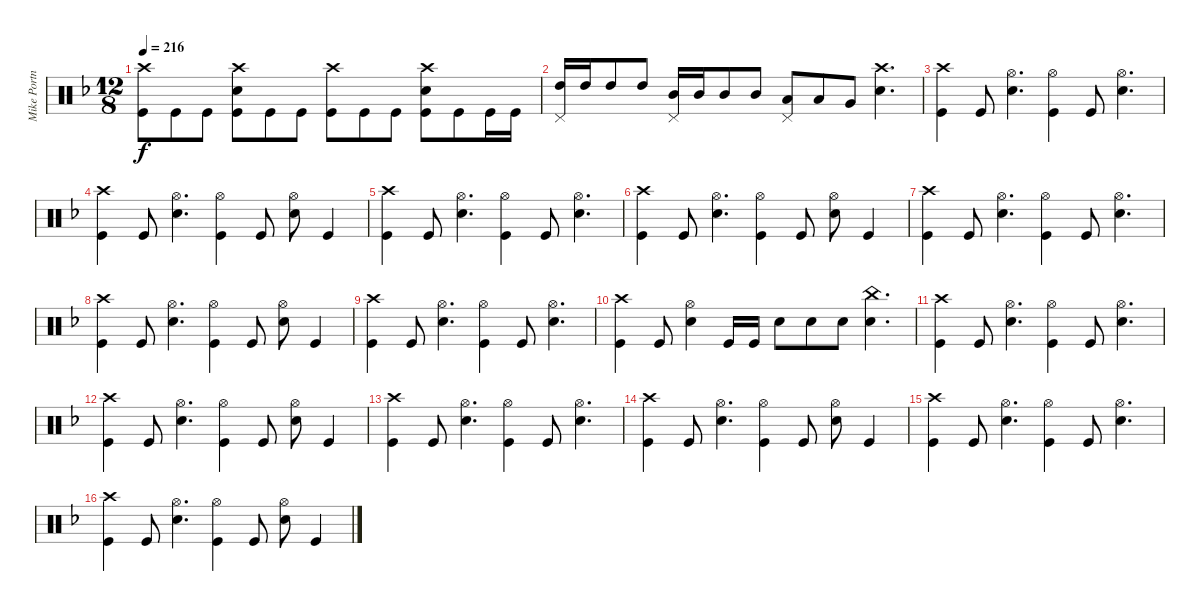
\track ("Mike Portnoy - Drums" "Mike Portn") {instrument percussion}
\staff {score}
\articulation defaults
\ts (12 8)
\tempo 216
\clef neutral
\ks dminor
("Crash high (hit)" "Kick (hit)").8{dy f} "Kick (hit)".8 "Kick (hit)".8 ("Crash high (hit)" "Snare (hit) 2" "Kick (hit)").8 "Kick (hit)".8 "Kick (hit)".8 ("Crash high (hit)" "Kick (hit)").8 "Kick (hit)".8 "Kick (hit)".8 ("Crash high (hit)" "Snare (hit) 2" "Kick (hit)").8 "Kick (hit)".8 "Kick (hit)".16 "Kick (hit)".16 |
("Pedal Hi-Hat (hit)" "High Tom (hit)").16 "High Tom (hit)".16 "High Tom (hit)".8 "High Tom (hit)".8 ("Pedal Hi-Hat (hit)" "Mid Tom (hit)").16 "Mid Tom (hit)".16 "Mid Tom (hit)".8 "Mid Tom (hit)".8 ("Pedal Hi-Hat (hit)" "Low Tom (hit)").8 "Low Tom (hit)".8 "Very Low Tom (hit)".8 ("Crash high (hit)" "Snare (hit) 2").4{d} |
("Crash high (hit)" "Kick (hit)").4 "Kick (hit)".8 ("Hi-Hat (open)" "Snare (hit) 2").4{d} ("Hi-Hat (open)" "Kick (hit)").4 "Kick (hit)".8 ("Hi-Hat (open)" "Snare (hit) 2").4{d} |
("Crash high (hit)" "Kick (hit)").4 "Kick (hit)".8 ("Hi-Hat (open)" "Snare (hit) 2").4{d} ("Hi-Hat (open)" "Kick (hit)").4 "Kick (hit)".8 ("Hi-Hat (open)" "Snare (hit) 2").8 "Kick (hit)".4 |
("Crash high (hit)" "Kick (hit)").4 "Kick (hit)".8 ("Hi-Hat (open)" "Snare (hit) 2").4{d} ("Hi-Hat (open)" "Kick (hit)").4 "Kick (hit)".8 ("Hi-Hat (open)" "Snare (hit) 2").4{d} |
("Crash high (hit)" "Kick (hit)").4 "Kick (hit)".8 ("Hi-Hat (open)" "Snare (hit) 2").4{d} ("Hi-Hat (open)" "Kick (hit)").4 "Kick (hit)".8 ("Hi-Hat (open)" "Snare (hit) 2").8 "Kick (hit)".4 |
("Crash high (hit)" "Kick (hit)").4 "Kick (hit)".8 ("Hi-Hat (open)" "Snare (hit) 2").4{d} ("Hi-Hat (open)" "Kick (hit)").4 "Kick (hit)".8 ("Hi-Hat (open)" "Snare (hit) 2").4{d} |
("Crash high (hit)" "Kick (hit)").4 "Kick (hit)".8 ("Hi-Hat (open)" "Snare (hit) 2").4{d} ("Hi-Hat (open)" "Kick (hit)").4 "Kick (hit)".8 ("Hi-Hat (open)" "Snare (hit) 2").8 "Kick (hit)".4 |
("Crash high (hit)" "Kick (hit)").4 "Kick (hit)".8 ("Hi-Hat (open)" "Snare (hit) 2").4{d} ("Hi-Hat (open)" "Kick (hit)").4 "Kick (hit)".8 ("Hi-Hat (open)" "Snare (hit) 2").4{d} |
("Crash high (hit)" "Kick (hit)").4 "Kick (hit)".8 ("Hi-Hat (open)" "Snare (hit) 2").4 "Kick (hit)".16 "Kick (hit)".16 "Snare (hit) 2".8 "Snare (hit) 2".8 "Snare (hit) 2".8 ("Snare (hit) 2" "China (hit)").4{d} |
("Crash high (hit)" "Kick (hit)").4 "Kick (hit)".8 ("Hi-Hat (open)" "Snare (hit) 2").4{d} ("Hi-Hat (open)" "Kick (hit)").4 "Kick (hit)".8 ("Hi-Hat (open)" "Snare (hit) 2").4{d} |
("Crash high (hit)" "Kick (hit)").4 "Kick (hit)".8 ("Hi-Hat (open)" "Snare (hit) 2").4{d} ("Hi-Hat (open)" "Kick (hit)").4 "Kick (hit)".8 ("Hi-Hat (open)" "Snare (hit) 2").8 "Kick (hit)".4 |
("Crash high (hit)" "Kick (hit)").4 "Kick (hit)".8 ("Hi-Hat (open)" "Snare (hit) 2").4{d} ("Hi-Hat (open)" "Kick (hit)").4 "Kick (hit)".8 ("Hi-Hat (open)" "Snare (hit) 2").4{d} |
("Crash high (hit)" "Kick (hit)").4 "Kick (hit)".8 ("Hi-Hat (open)" "Snare (hit) 2").4{d} ("Hi-Hat (open)" "Kick (hit)").4 "Kick (hit)".8 ("Hi-Hat (open)" "Snare (hit) 2").8 "Kick (hit)".4 |
("Crash high (hit)" "Kick (hit)").4 "Kick (hit)".8 ("Hi-Hat (open)" "Snare (hit) 2").4{d} ("Hi-Hat (open)" "Kick (hit)").4 "Kick (hit)".8 ("Hi-Hat (open)" "Snare (hit) 2").4{d} |
("Crash high (hit)" "Kick (hit)").4 "Kick (hit)".8 ("Hi-Hat (open)" "Snare (hit) 2").4{d} ("Hi-Hat (open)" "Kick (hit)").4 "Kick (hit)".8 ("Hi-Hat (open)" "Snare (hit) 2").8 "Kick (hit)".4
